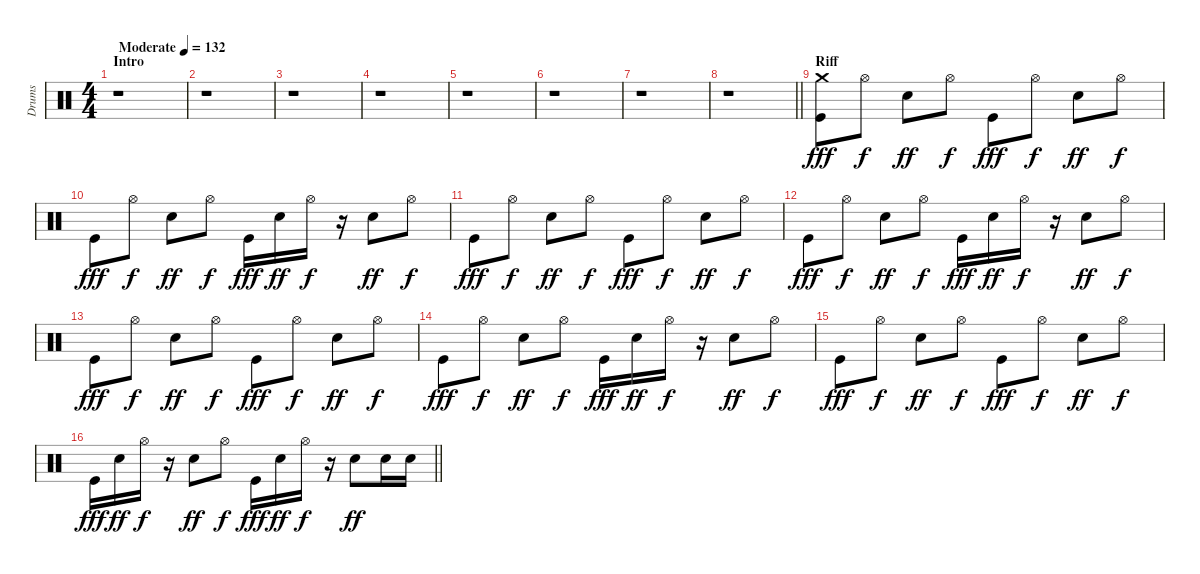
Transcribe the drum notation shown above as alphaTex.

\track ("Drums" "Drums") {instrument percussion}
\staff {score}
\articulation defaults
\ts (4 4)
\section ("" "Intro")
\tempo (132 "Moderate")
\clef neutral
\ks c
r.1{dy fff} |
r.1 |
r.1 |
r.1 |
r.1 |
r.1 |
r.1 |
\barLineRight lightlight
r.1 |
\section ("" "Riff")
("Crash medium (hit)" "Kick (hit)").8 "Hi-Hat (open)".8{dy f} "Snare (hit) 2".8{dy ff} "Hi-Hat (open)".8{dy f} "Kick (hit)".8{dy fff} "Hi-Hat (open)".8{dy f} "Snare (hit) 2".8{dy ff} "Hi-Hat (open)".8{dy f} |
"Kick (hit)".8{dy fff} "Hi-Hat (open)".8{dy f} "Snare (hit) 2".8{dy ff} "Hi-Hat (open)".8{dy f} "Kick (hit)".16{dy fff} "Snare (hit) 2".16{dy ff} "Hi-Hat (open)".16{dy f} r.16 "Snare (hit) 2".8{dy ff} "Hi-Hat (open)".8{dy f} |
"Kick (hit)".8{dy fff} "Hi-Hat (open)".8{dy f} "Snare (hit) 2".8{dy ff} "Hi-Hat (open)".8{dy f} "Kick (hit)".8{dy fff} "Hi-Hat (open)".8{dy f} "Snare (hit) 2".8{dy ff} "Hi-Hat (open)".8{dy f} |
"Kick (hit)".8{dy fff} "Hi-Hat (open)".8{dy f} "Snare (hit) 2".8{dy ff} "Hi-Hat (open)".8{dy f} "Kick (hit)".16{dy fff} "Snare (hit) 2".16{dy ff} "Hi-Hat (open)".16{dy f} r.16 "Snare (hit) 2".8{dy ff} "Hi-Hat (open)".8{dy f} |
"Kick (hit)".8{dy fff} "Hi-Hat (open)".8{dy f} "Snare (hit) 2".8{dy ff} "Hi-Hat (open)".8{dy f} "Kick (hit)".8{dy fff} "Hi-Hat (open)".8{dy f} "Snare (hit) 2".8{dy ff} "Hi-Hat (open)".8{dy f} |
"Kick (hit)".8{dy fff} "Hi-Hat (open)".8{dy f} "Snare (hit) 2".8{dy ff} "Hi-Hat (open)".8{dy f} "Kick (hit)".16{dy fff} "Snare (hit) 2".16{dy ff} "Hi-Hat (open)".16{dy f} r.16 "Snare (hit) 2".8{dy ff} "Hi-Hat (open)".8{dy f} |
"Kick (hit)".8{dy fff} "Hi-Hat (open)".8{dy f} "Snare (hit) 2".8{dy ff} "Hi-Hat (open)".8{dy f} "Kick (hit)".8{dy fff} "Hi-Hat (open)".8{dy f} "Snare (hit) 2".8{dy ff} "Hi-Hat (open)".8{dy f} |
\barLineRight lightlight "Kick (hit)".16{dy fff} "Snare (hit) 2".16{dy ff} "Hi-Hat (open)".16{dy f}
r.16 "Snare (hit) 2".8{dy ff} "Hi-Hat (open)".8{dy f} "Kick (hit)".16{dy fff} "Snare (hit) 2".16{dy ff} "Hi-Hat (open)".16{dy f} r.16 "Snare (hit) 2".8{dy ff} "Snare (hit) 2".16 "Snare (hit) 2".16
